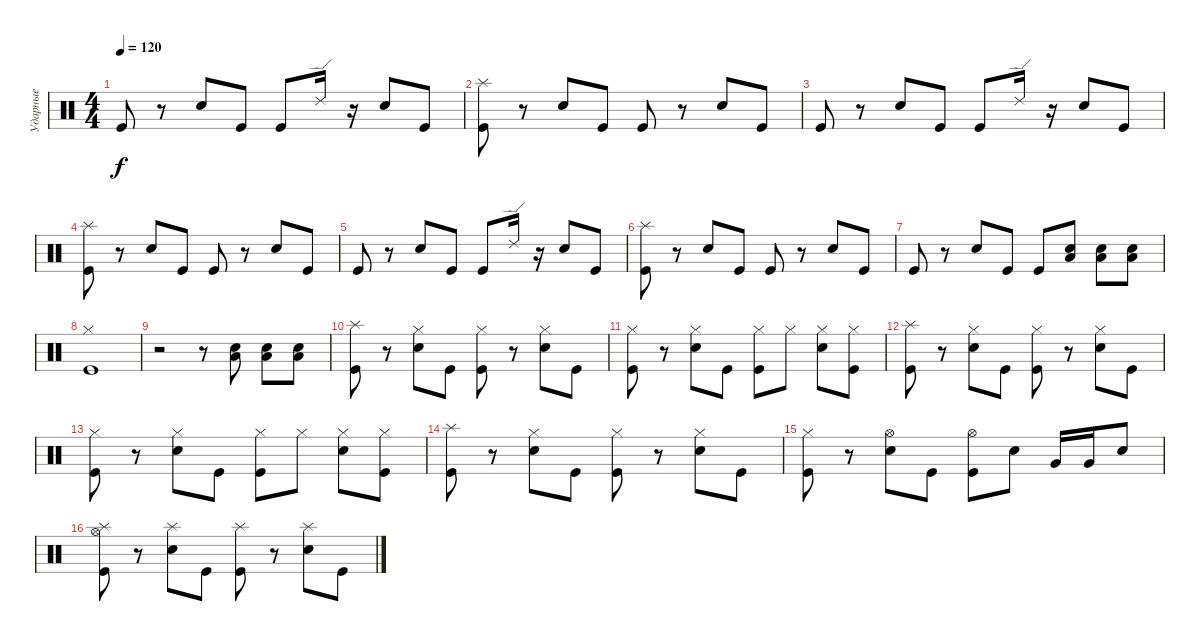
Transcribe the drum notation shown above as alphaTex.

\track ("Ударные" "Ударные") {instrument percussion}
\staff {score}
\articulation defaults
\ts (4 4)
\tempo 120
\clef neutral
\ks c "Kick (hit)".8{dy f}
r.8 "Snare (hit) 2".8 "Kick (hit)".8 "Kick (hit)".8 "Ride (edge) 2".16 r.16 "Snare (hit) 2".8 "Kick (hit)".8 |
("Splash (hit)" "Kick (hit)").8 r.8 "Snare (hit) 2".8 "Kick (hit)".8 "Kick (hit)".8 r.8 "Snare (hit) 2".8 "Kick (hit)".8 |
"Kick (hit)".8 r.8 "Snare (hit) 2".8 "Kick (hit)".8 "Kick (hit)".8 "Ride (edge) 2".16 r.16 "Snare (hit) 2".8 "Kick (hit)".8 |
("Splash (hit)" "Kick (hit)").8 r.8 "Snare (hit) 2".8 "Kick (hit)".8 "Kick (hit)".8 r.8 "Snare (hit) 2".8 "Kick (hit)".8 |
"Kick (hit)".8 r.8 "Snare (hit) 2".8 "Kick (hit)".8 "Kick (hit)".8 "Ride (edge) 2".16 r.16 "Snare (hit) 2".8 "Kick (hit)".8 |
("Splash (hit)" "Kick (hit)").8 r.8 "Snare (hit) 2".8 "Kick (hit)".8 "Kick (hit)".8 r.8 "Snare (hit) 2".8 "Kick (hit)".8 |
"Kick (hit)".8 r.8 "Snare (hit) 2".8 "Kick (hit)".8 "Kick (hit)".8 ("Snare (hit) 2" "Low Tom (hit)").8 ("Snare (hit) 2" "Low Tom (hit)").8 ("Snare (hit) 2" "Low Tom (hit)").8 |
("Hi-Hat (closed)" "Kick (hit)").1 |
r.2 r.8 ("Snare (hit) 2" "Low Tom (hit)").8 ("Snare (hit) 2" "Low Tom (hit)").8 ("Snare (hit) 2" "Low Tom (hit)").8 |
("Splash (hit)" "Kick (hit)").8 r.8 ("Hi-Hat (closed)" "Snare (hit) 2").8 "Kick (hit)".8 ("Hi-Hat (closed)" "Kick (hit)").8 r.8 ("Hi-Hat (closed)" "Snare (hit) 2").8 "Kick (hit)".8 |
("Hi-Hat (closed)" "Kick (hit)").8 r.8 ("Hi-Hat (closed)" "Snare (hit) 2").8 "Kick (hit)".8 ("Hi-Hat (closed)" "Kick (hit)").8 "Hi-Hat (closed)".8 ("Hi-Hat (closed)" "Snare (hit) 2").8 ("Hi-Hat (closed)" "Kick (hit)").8 |
("Splash (hit)" "Kick (hit)").8 r.8 ("Hi-Hat (closed)" "Snare (hit) 2").8 "Kick (hit)".8 ("Hi-Hat (closed)" "Kick (hit)").8 r.8 ("Hi-Hat (closed)" "Snare (hit) 2").8 "Kick (hit)".8 |
("Hi-Hat (closed)" "Kick (hit)").8 r.8 ("Hi-Hat (closed)" "Snare (hit) 2").8 "Kick (hit)".8 ("Hi-Hat (closed)" "Kick (hit)").8 "Hi-Hat (closed)".8 ("Hi-Hat (closed)" "Snare (hit) 2").8 ("Hi-Hat (closed)" "Kick (hit)").8 |
("Splash (hit)" "Kick (hit)").8 r.8 ("Hi-Hat (closed)" "Snare (hit) 2").8 "Kick (hit)".8 ("Hi-Hat (closed)" "Kick (hit)").8 r.8 ("Hi-Hat (closed)" "Snare (hit) 2").8 "Kick (hit)".8 |
("Hi-Hat (closed)" "Kick (hit)").8 r.8 ("Hi-Hat (open)" "Snare (hit) 2").8 "Kick (hit)".8 ("Hi-Hat (open)" "Kick (hit)").8 "Snare (hit) 2".8 "Very Low Tom (hit)".16 "Very Low Tom (hit)".16 "Snare (hit) 2".8 |
("Splash (hit)" "Hi-Hat (open)" "Kick (hit)").8 r.8 ("Splash (hit)" "Snare (hit) 2").8 "Kick (hit)".8 ("Splash (hit)" "Kick (hit)").8 r.8 ("Splash (hit)" "Snare (hit) 2").8 "Kick (hit)".8
